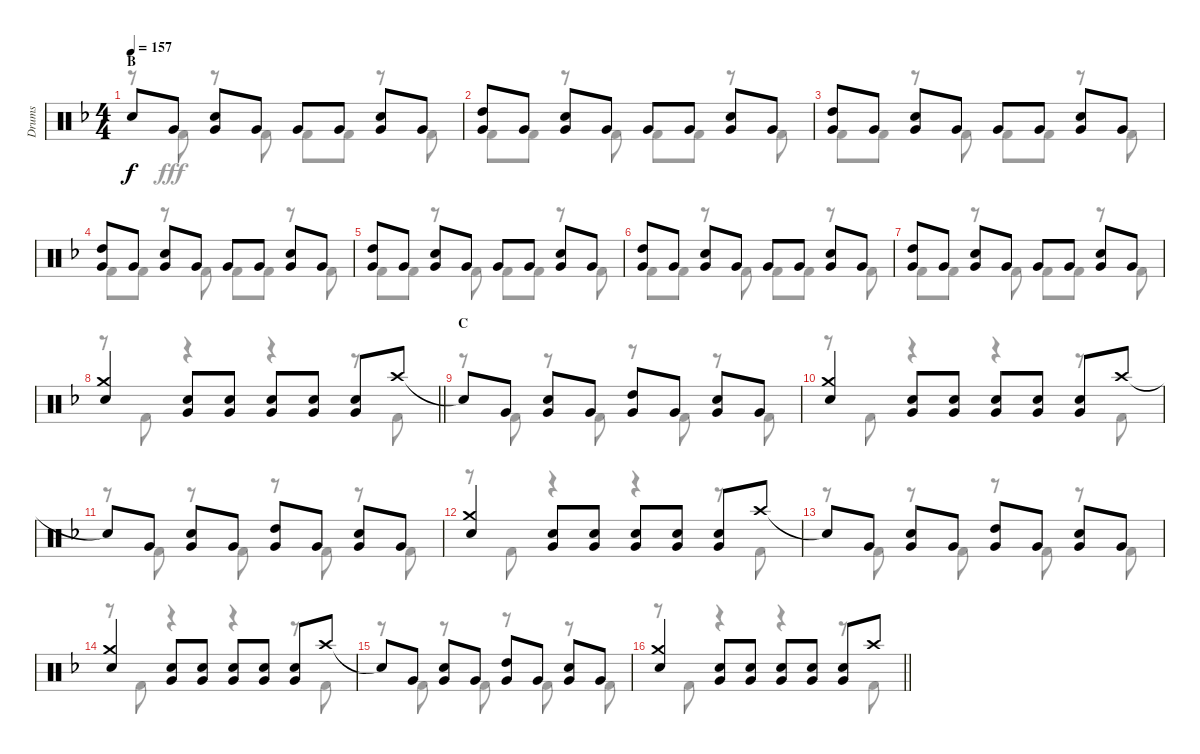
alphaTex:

\track ("Drums" "Drums") {instrument percussion}
\staff {score}
\articulation defaults
\voice
\ts (4 4)
\section ("" "B")
\tempo 157
\clef neutral
\ks f "Snare (hit)"{t}.8{dy f} "Very Low Tom (hit)".8
("Snare (hit) 2" "Very Low Tom (hit)").8 "Very Low Tom (hit)".8 "Very Low Tom (hit)".8 "Very Low Tom (hit)".8 ("Snare (hit) 2" "Very Low Tom (hit)").8 "Very Low Tom (hit)".8 |
("High Tom (hit)" "Very Low Tom (hit)").8 "Very Low Tom (hit)".8 ("Snare (hit) 2" "Very Low Tom (hit)").8 "Very Low Tom (hit)".8 "Very Low Tom (hit)".8 "Very Low Tom (hit)".8 ("Snare (hit) 2" "Very Low Tom (hit)").8 "Very Low Tom (hit)".8 |
("High Tom (hit)" "Very Low Tom (hit)").8 "Very Low Tom (hit)".8 ("Snare (hit) 2" "Very Low Tom (hit)").8 "Very Low Tom (hit)".8 "Very Low Tom (hit)".8 "Very Low Tom (hit)".8 ("Snare (hit) 2" "Very Low Tom (hit)").8 "Very Low Tom (hit)".8 |
("High Tom (hit)" "Very Low Tom (hit)").8 "Very Low Tom (hit)".8 ("Snare (hit) 2" "Very Low Tom (hit)").8 "Very Low Tom (hit)".8 "Very Low Tom (hit)".8 "Very Low Tom (hit)".8 ("Snare (hit) 2" "Very Low Tom (hit)").8 "Very Low Tom (hit)".8 |
("High Tom (hit)" "Very Low Tom (hit)").8 "Very Low Tom (hit)".8 ("Snare (hit) 2" "Very Low Tom (hit)").8 "Very Low Tom (hit)".8 "Very Low Tom (hit)".8 "Very Low Tom (hit)".8 ("Snare (hit) 2" "Very Low Tom (hit)").8 "Very Low Tom (hit)".8 |
("High Tom (hit)" "Very Low Tom (hit)").8 "Very Low Tom (hit)".8 ("Snare (hit) 2" "Very Low Tom (hit)").8 "Very Low Tom (hit)".8 "Very Low Tom (hit)".8 "Very Low Tom (hit)".8 ("Snare (hit) 2" "Very Low Tom (hit)").8 "Very Low Tom (hit)".8 |
("High Tom (hit)" "Very Low Tom (hit)").8 "Very Low Tom (hit)".8 ("Snare (hit) 2" "Very Low Tom (hit)").8 "Very Low Tom (hit)".8 "Very Low Tom (hit)".8 "Very Low Tom (hit)".8 ("Snare (hit) 2" "Very Low Tom (hit)").8 "Very Low Tom (hit)".8 |
\barLineRight lightlight
("Crash medium (hit)" "Snare (hit) 2").4 ("Snare (hit) 2" "Very Low Tom (hit)").8 ("Snare (hit) 2" "Very Low Tom (hit)").8 ("Snare (hit) 2" "Very Low Tom (hit)").8 ("Snare (hit) 2" "Very Low Tom (hit)").8 ("Snare (hit) 2" "Very Low Tom (hit)").8 "Crash high (hit)".8 |
\section ("" "C")
"Snare (hit)"{t}.8 "Very Low Tom (hit)".8 ("Snare (hit) 2" "Very Low Tom (hit)").8 "Very Low Tom (hit)".8 ("High Tom (hit)" "Very Low Tom (hit)").8 "Very Low Tom (hit)".8 ("Snare (hit) 2" "Very Low Tom (hit)").8 "Very Low Tom (hit)".8 |
("Crash medium (hit)" "Snare (hit) 2").4 ("Snare (hit) 2" "Very Low Tom (hit)").8 ("Snare (hit) 2" "Very Low Tom (hit)").8 ("Snare (hit) 2" "Very Low Tom (hit)").8 ("Snare (hit) 2" "Very Low Tom (hit)").8 ("Snare (hit) 2" "Very Low Tom (hit)").8 "Crash high (hit)".8 |
"Snare (hit)"{t}.8 "Very Low Tom (hit)".8 ("Snare (hit) 2" "Very Low Tom (hit)").8 "Very Low Tom (hit)".8 ("High Tom (hit)" "Very Low Tom (hit)").8 "Very Low Tom (hit)".8 ("Snare (hit) 2" "Very Low Tom (hit)").8 "Very Low Tom (hit)".8 |
("Crash medium (hit)" "Snare (hit) 2").4 ("Snare (hit) 2" "Very Low Tom (hit)").8 ("Snare (hit) 2" "Very Low Tom (hit)").8 ("Snare (hit) 2" "Very Low Tom (hit)").8 ("Snare (hit) 2" "Very Low Tom (hit)").8 ("Snare (hit) 2" "Very Low Tom (hit)").8 "Crash high (hit)".8 |
"Snare (hit)"{t}.8 "Very Low Tom (hit)".8 ("Snare (hit) 2" "Very Low Tom (hit)").8 "Very Low Tom (hit)".8 ("High Tom (hit)" "Very Low Tom (hit)").8 "Very Low Tom (hit)".8 ("Snare (hit) 2" "Very Low Tom (hit)").8 "Very Low Tom (hit)".8 |
("Crash medium (hit)" "Snare (hit) 2").4 ("Snare (hit) 2" "Very Low Tom (hit)").8 ("Snare (hit) 2" "Very Low Tom (hit)").8 ("Snare (hit) 2" "Very Low Tom (hit)").8 ("Snare (hit) 2" "Very Low Tom (hit)").8 ("Snare (hit) 2" "Very Low Tom (hit)").8 "Crash high (hit)".8 |
"Snare (hit)"{t}.8 "Very Low Tom (hit)".8 ("Snare (hit) 2" "Very Low Tom (hit)").8 "Very Low Tom (hit)".8 ("High Tom (hit)" "Very Low Tom (hit)").8 "Very Low Tom (hit)".8 ("Snare (hit) 2" "Very Low Tom (hit)").8 "Very Low Tom (hit)".8 |
\barLineRight lightlight
("Crash medium (hit)" "Snare (hit) 2").4 ("Snare (hit) 2" "Very Low Tom (hit)").8 ("Snare (hit) 2" "Very Low Tom (hit)").8 ("Snare (hit) 2" "Very Low Tom (hit)").8 ("Snare (hit) 2" "Very Low Tom (hit)").8 ("Snare (hit) 2" "Very Low Tom (hit)").8 "Crash high (hit)".8
\voice
\clef neutral
\ottava regular
\simile none
\ks f
r.8{dy fff} "Kick (hit) 2".8 r.8 "Kick (hit) 2".8 "Kick (hit) 2".8 "Kick (hit) 2".8 r.8 "Kick (hit) 2".8 |
"Kick (hit) 2".8 "Kick (hit) 2".8 r.8 "Kick (hit) 2".8 "Kick (hit) 2".8 "Kick (hit) 2".8 r.8 "Kick (hit) 2".8 |
"Kick (hit) 2".8 "Kick (hit) 2".8 r.8 "Kick (hit) 2".8 "Kick (hit) 2".8 "Kick (hit) 2".8 r.8 "Kick (hit) 2".8 |
"Kick (hit) 2".8 "Kick (hit) 2".8 r.8 "Kick (hit) 2".8 "Kick (hit) 2".8 "Kick (hit) 2".8 r.8 "Kick (hit) 2".8 |
"Kick (hit) 2".8 "Kick (hit) 2".8 r.8 "Kick (hit) 2".8 "Kick (hit) 2".8 "Kick (hit) 2".8 r.8 "Kick (hit) 2".8 |
"Kick (hit) 2".8 "Kick (hit) 2".8 r.8 "Kick (hit) 2".8 "Kick (hit) 2".8 "Kick (hit) 2".8 r.8 "Kick (hit) 2".8 |
"Kick (hit) 2".8 "Kick (hit) 2".8 r.8 "Kick (hit) 2".8 "Kick (hit) 2".8 "Kick (hit) 2".8 r.8 "Kick (hit) 2".8 |
\barLineRight lightlight
r.8 "Kick (hit) 2".8 r.4 r.4 r.8 "Kick (hit) 2".8 |
r.8 "Kick (hit) 2".8 r.8 "Kick (hit) 2".8 r.8 "Kick (hit) 2".8 r.8 "Kick (hit) 2".8 |
r.8 "Kick (hit) 2".8 r.4 r.4 r.8 "Kick (hit) 2".8 |
r.8 "Kick (hit) 2".8 r.8 "Kick (hit) 2".8 r.8 "Kick (hit) 2".8 r.8 "Kick (hit) 2".8 |
r.8 "Kick (hit) 2".8 r.4 r.4 r.8 "Kick (hit) 2".8 |
r.8 "Kick (hit) 2".8 r.8 "Kick (hit) 2".8 r.8 "Kick (hit) 2".8 r.8 "Kick (hit) 2".8 |
r.8 "Kick (hit) 2".8 r.4 r.4 r.8 "Kick (hit) 2".8 |
r.8 "Kick (hit) 2".8 r.8 "Kick (hit) 2".8 r.8 "Kick (hit) 2".8 r.8 "Kick (hit) 2".8 |
\barLineRight lightlight
r.8 "Kick (hit) 2".8 r.4 r.4 r.8 "Kick (hit) 2".8
